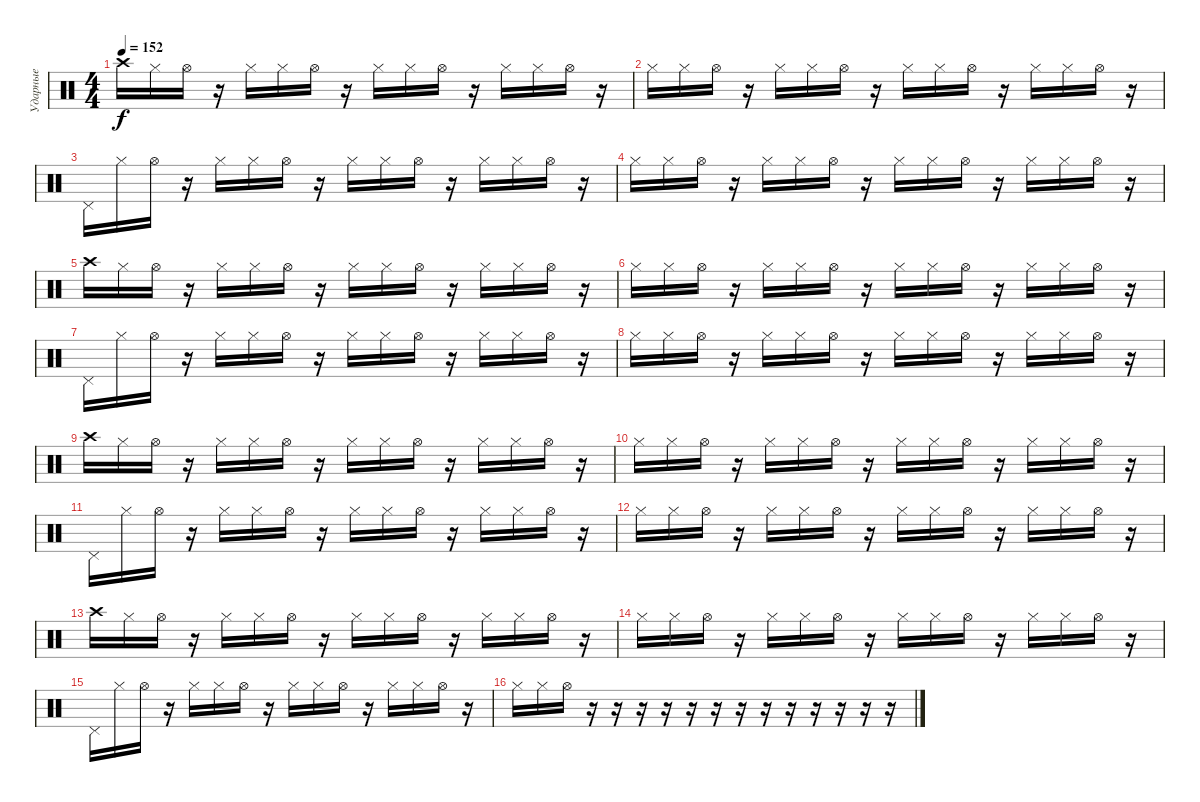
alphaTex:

\track ("Ударные" "Ударные") {instrument percussion}
\staff {score}
\articulation defaults
\ts (4 4)
\tempo 152
\clef neutral
\ks c "Crash high (hit)".16{dy f} "Hi-Hat (closed)".16 "Hi-Hat (open)".16
r.16 "Hi-Hat (closed)".16 "Hi-Hat (closed)".16 "Hi-Hat (open)".16 r.16 "Hi-Hat (closed)".16 "Hi-Hat (closed)".16 "Hi-Hat (open)".16 r.16 "Hi-Hat (closed)".16 "Hi-Hat (closed)".16 "Hi-Hat (open)".16 r.16 |
"Hi-Hat (closed)".16 "Hi-Hat (closed)".16 "Hi-Hat (open)".16 r.16 "Hi-Hat (closed)".16 "Hi-Hat (closed)".16 "Hi-Hat (open)".16 r.16 "Hi-Hat (closed)".16 "Hi-Hat (closed)".16 "Hi-Hat (open)".16 r.16 "Hi-Hat (closed)".16 "Hi-Hat (closed)".16 "Hi-Hat (open)".16 r.16 |
"Pedal Hi-Hat (hit)".16 "Hi-Hat (closed)".16 "Hi-Hat (open)".16 r.16 "Hi-Hat (closed)".16 "Hi-Hat (closed)".16 "Hi-Hat (open)".16 r.16 "Hi-Hat (closed)".16 "Hi-Hat (closed)".16 "Hi-Hat (open)".16 r.16 "Hi-Hat (closed)".16 "Hi-Hat (closed)".16 "Hi-Hat (open)".16 r.16 |
"Hi-Hat (closed)".16 "Hi-Hat (closed)".16 "Hi-Hat (open)".16 r.16 "Hi-Hat (closed)".16 "Hi-Hat (closed)".16 "Hi-Hat (open)".16 r.16 "Hi-Hat (closed)".16 "Hi-Hat (closed)".16 "Hi-Hat (open)".16 r.16 "Hi-Hat (closed)".16 "Hi-Hat (closed)".16 "Hi-Hat (open)".16 r.16 |
"Crash high (hit)".16 "Hi-Hat (closed)".16 "Hi-Hat (open)".16 r.16 "Hi-Hat (closed)".16 "Hi-Hat (closed)".16 "Hi-Hat (open)".16 r.16 "Hi-Hat (closed)".16 "Hi-Hat (closed)".16 "Hi-Hat (open)".16 r.16 "Hi-Hat (closed)".16 "Hi-Hat (closed)".16 "Hi-Hat (open)".16 r.16 |
"Hi-Hat (closed)".16 "Hi-Hat (closed)".16 "Hi-Hat (open)".16 r.16 "Hi-Hat (closed)".16 "Hi-Hat (closed)".16 "Hi-Hat (open)".16 r.16 "Hi-Hat (closed)".16 "Hi-Hat (closed)".16 "Hi-Hat (open)".16 r.16 "Hi-Hat (closed)".16 "Hi-Hat (closed)".16 "Hi-Hat (open)".16 r.16 |
"Pedal Hi-Hat (hit)".16 "Hi-Hat (closed)".16 "Hi-Hat (open)".16 r.16 "Hi-Hat (closed)".16 "Hi-Hat (closed)".16 "Hi-Hat (open)".16 r.16 "Hi-Hat (closed)".16 "Hi-Hat (closed)".16 "Hi-Hat (open)".16 r.16 "Hi-Hat (closed)".16 "Hi-Hat (closed)".16 "Hi-Hat (open)".16 r.16 |
"Hi-Hat (closed)".16 "Hi-Hat (closed)".16 "Hi-Hat (open)".16 r.16 "Hi-Hat (closed)".16 "Hi-Hat (closed)".16 "Hi-Hat (open)".16 r.16 "Hi-Hat (closed)".16 "Hi-Hat (closed)".16 "Hi-Hat (open)".16 r.16 "Hi-Hat (closed)".16 "Hi-Hat (closed)".16 "Hi-Hat (open)".16 r.16 |
"Crash high (hit)".16 "Hi-Hat (closed)".16 "Hi-Hat (open)".16 r.16 "Hi-Hat (closed)".16 "Hi-Hat (closed)".16 "Hi-Hat (open)".16 r.16 "Hi-Hat (closed)".16 "Hi-Hat (closed)".16 "Hi-Hat (open)".16 r.16 "Hi-Hat (closed)".16 "Hi-Hat (closed)".16 "Hi-Hat (open)".16 r.16 |
"Hi-Hat (closed)".16 "Hi-Hat (closed)".16 "Hi-Hat (open)".16 r.16 "Hi-Hat (closed)".16 "Hi-Hat (closed)".16 "Hi-Hat (open)".16 r.16 "Hi-Hat (closed)".16 "Hi-Hat (closed)".16 "Hi-Hat (open)".16 r.16 "Hi-Hat (closed)".16 "Hi-Hat (closed)".16 "Hi-Hat (open)".16 r.16 |
"Pedal Hi-Hat (hit)".16 "Hi-Hat (closed)".16 "Hi-Hat (open)".16 r.16 "Hi-Hat (closed)".16 "Hi-Hat (closed)".16 "Hi-Hat (open)".16 r.16 "Hi-Hat (closed)".16 "Hi-Hat (closed)".16 "Hi-Hat (open)".16 r.16 "Hi-Hat (closed)".16 "Hi-Hat (closed)".16 "Hi-Hat (open)".16 r.16 |
"Hi-Hat (closed)".16 "Hi-Hat (closed)".16 "Hi-Hat (open)".16 r.16 "Hi-Hat (closed)".16 "Hi-Hat (closed)".16 "Hi-Hat (open)".16 r.16 "Hi-Hat (closed)".16 "Hi-Hat (closed)".16 "Hi-Hat (open)".16 r.16 "Hi-Hat (closed)".16 "Hi-Hat (closed)".16 "Hi-Hat (open)".16 r.16 |
"Crash high (hit)".16 "Hi-Hat (closed)".16 "Hi-Hat (open)".16 r.16 "Hi-Hat (closed)".16 "Hi-Hat (closed)".16 "Hi-Hat (open)".16 r.16 "Hi-Hat (closed)".16 "Hi-Hat (closed)".16 "Hi-Hat (open)".16 r.16 "Hi-Hat (closed)".16 "Hi-Hat (closed)".16 "Hi-Hat (open)".16 r.16 |
"Hi-Hat (closed)".16 "Hi-Hat (closed)".16 "Hi-Hat (open)".16 r.16 "Hi-Hat (closed)".16 "Hi-Hat (closed)".16 "Hi-Hat (open)".16 r.16 "Hi-Hat (closed)".16 "Hi-Hat (closed)".16 "Hi-Hat (open)".16 r.16 "Hi-Hat (closed)".16 "Hi-Hat (closed)".16 "Hi-Hat (open)".16 r.16 |
"Pedal Hi-Hat (hit)".16 "Hi-Hat (closed)".16 "Hi-Hat (open)".16 r.16 "Hi-Hat (closed)".16 "Hi-Hat (closed)".16 "Hi-Hat (open)".16 r.16 "Hi-Hat (closed)".16 "Hi-Hat (closed)".16 "Hi-Hat (open)".16 r.16 "Hi-Hat (closed)".16 "Hi-Hat (closed)".16 "Hi-Hat (open)".16 r.16 |
"Hi-Hat (closed)".16 "Hi-Hat (closed)".16 "Hi-Hat (open)".16 r.16 r.16 r.16 r.16 r.16 r.16 r.16 r.16 r.16 r.16 r.16 r.16 r.16
